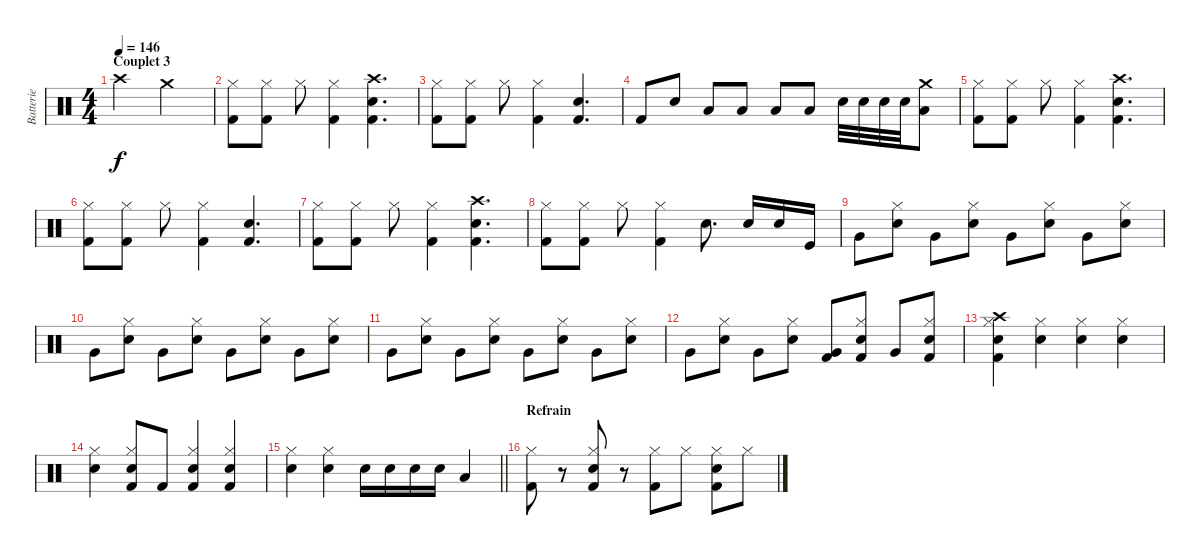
\track ("Batterie" "Batterie") {instrument percussion}
\staff {score}
\articulation defaults
\ts (4 4)
\section ("" "Couplet 3")
\tempo 146
\clef neutral
\ks c "Crash high (hit)".2{dy f} "Crash medium (hit)".2
|
("Kick (hit) 2" "Hi-Hat (closed)").8 ("Kick (hit) 2" "Hi-Hat (closed)").8 "Hi-Hat (closed)".8 ("Kick (hit) 2" "Hi-Hat (closed)").4 ("Kick (hit) 2" "Snare (hit) 2" "Crash high (hit)").4{d} |
("Kick (hit) 2" "Hi-Hat (closed)").8 ("Kick (hit) 2" "Hi-Hat (closed)").8 "Hi-Hat (closed)".8 ("Kick (hit) 2" "Hi-Hat (closed)").4 ("Kick (hit) 2" "Snare (hit) 2").4{d} |
"Kick (hit) 2".8 "Snare (hit) 2".8 "Low Tom (hit)".8 "Low Tom (hit)".8 "Low Tom (hit)".8 "Low Tom (hit)".8 "Electric Snare (hit)".32 "Electric Snare (hit)".32 "Electric Snare (hit)".32 "Electric Snare (hit)".32 ("Low Tom (hit)" "Crash medium (hit)").8 |
("Kick (hit) 2" "Hi-Hat (closed)").8 ("Kick (hit) 2" "Hi-Hat (closed)").8 "Hi-Hat (closed)".8 ("Kick (hit) 2" "Hi-Hat (closed)").4 ("Kick (hit) 2" "Snare (hit) 2" "Crash high (hit)").4{d} |
("Kick (hit) 2" "Hi-Hat (closed)").8 ("Kick (hit) 2" "Hi-Hat (closed)").8 "Hi-Hat (closed)".8 ("Kick (hit) 2" "Hi-Hat (closed)").4 ("Kick (hit) 2" "Snare (hit) 2").4{d} |
("Kick (hit) 2" "Hi-Hat (closed)").8 ("Kick (hit) 2" "Hi-Hat (closed)").8 "Hi-Hat (closed)".8 ("Kick (hit) 2" "Hi-Hat (closed)").4 ("Kick (hit) 2" "Snare (hit) 2" "Crash high (hit)").4{d} |
("Kick (hit) 2" "Hi-Hat (closed)").8 ("Kick (hit) 2" "Hi-Hat (closed)").8 "Hi-Hat (closed)".8 ("Kick (hit) 2" "Hi-Hat (closed)").4 "Snare (hit) 2".8{d} "Electric Snare (hit)".16 "Electric Snare (hit)".16 "Kick (hit)".16 |
"Very Low Tom (hit)".8 ("Snare (hit) 2" "Hi-Hat (closed)").8 "Very Low Tom (hit)".8 ("Snare (hit) 2" "Hi-Hat (closed)").8 "Very Low Tom (hit)".8 ("Snare (hit) 2" "Hi-Hat (closed)").8 "Very Low Tom (hit)".8 ("Snare (hit) 2" "Hi-Hat (closed)").8 |
"Very Low Tom (hit)".8 ("Snare (hit) 2" "Hi-Hat (closed)").8 "Very Low Tom (hit)".8 ("Snare (hit) 2" "Hi-Hat (closed)").8 "Very Low Tom (hit)".8 ("Snare (hit) 2" "Hi-Hat (closed)").8 "Very Low Tom (hit)".8 ("Snare (hit) 2" "Hi-Hat (closed)").8 |
"Very Low Tom (hit)".8 ("Snare (hit) 2" "Hi-Hat (closed)").8 "Very Low Tom (hit)".8 ("Snare (hit) 2" "Hi-Hat (closed)").8 "Very Low Tom (hit)".8 ("Snare (hit) 2" "Hi-Hat (closed)").8 "Very Low Tom (hit)".8 ("Snare (hit) 2" "Hi-Hat (closed)").8 |
"Very Low Tom (hit)".8 ("Snare (hit) 2" "Hi-Hat (closed)").8 "Very Low Tom (hit)".8 ("Snare (hit) 2" "Hi-Hat (closed)").8 ("Kick (hit) 2" "Very Low Tom (hit)").8 ("Kick (hit) 2" "Snare (hit) 2" "Hi-Hat (closed)").8 "Very Low Tom (hit)".8 ("Kick (hit) 2" "Snare (hit) 2" "Hi-Hat (closed)").8 |
("Kick (hit) 2" "Snare (hit) 2" "Crash high (hit)" "Hi-Hat (closed)").4 ("Snare (hit) 2" "Hi-Hat (closed)").4 ("Snare (hit) 2" "Hi-Hat (closed)").4 ("Snare (hit) 2" "Hi-Hat (closed)").4 |
("Snare (hit) 2" "Hi-Hat (closed)").4 ("Kick (hit) 2" "Snare (hit) 2" "Hi-Hat (closed)").8 "Kick (hit) 2".8 ("Kick (hit) 2" "Snare (hit) 2" "Hi-Hat (closed)").4 ("Kick (hit) 2" "Snare (hit) 2" "Hi-Hat (closed)").4 |
\barLineRight lightlight
("Snare (hit) 2" "Hi-Hat (closed)").4 ("Snare (hit) 2" "Hi-Hat (closed)").4 "Electric Snare (hit)".16 "Snare (hit) 2".16 "Electric Snare (hit)".16 "Snare (hit) 2".16 "Low Tom (hit)".4 |
\section ("" "Refrain")
("Kick (hit) 2" "Hi-Hat (closed)").8 r.8 ("Kick (hit) 2" "Snare (hit) 2" "Hi-Hat (closed)").8 r.8 ("Kick (hit) 2" "Hi-Hat (closed)").8 "Hi-Hat (closed)".8 ("Kick (hit) 2" "Snare (hit) 2" "Hi-Hat (closed)").8 "Hi-Hat (closed)".8
